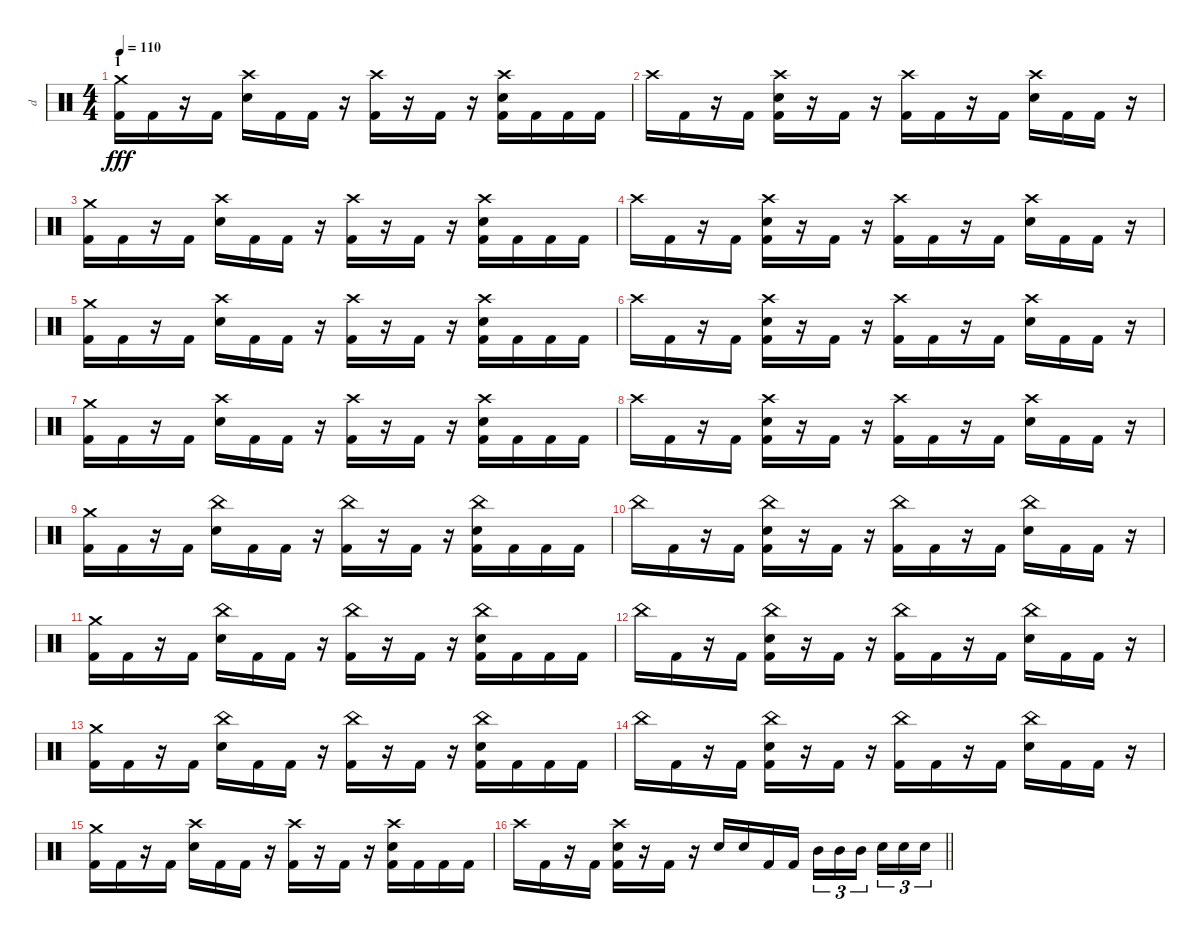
\track ("d" "d") {instrument percussion}
\staff {score}
\articulation defaults
\ts (4 4)
\section ("" "1")
\tempo 110
\clef neutral
\ks c
("Kick (hit) 2" "Crash medium (hit)").16{dy fff} "Kick (hit) 2".16 r.16 "Kick (hit) 2".16 ("Electric Snare (hit)" "Crash high (hit)").16 "Kick (hit) 2".16 "Kick (hit) 2".16 r.16 ("Kick (hit) 2" "Crash high (hit)").16 r.16 "Kick (hit) 2".16 r.16 ("Kick (hit) 2" "Electric Snare (hit)" "Crash high (hit)").16 "Kick (hit) 2".16 "Kick (hit) 2".16 "Kick (hit) 2".16 |
"Crash high (hit)".16 "Kick (hit) 2".16 r.16 "Kick (hit) 2".16 ("Kick (hit) 2" "Electric Snare (hit)" "Crash high (hit)").16 r.16 "Kick (hit) 2".16 r.16 ("Kick (hit) 2" "Crash high (hit)").16 "Kick (hit) 2".16 r.16 "Kick (hit) 2".16 ("Electric Snare (hit)" "Crash high (hit)").16 "Kick (hit) 2".16 "Kick (hit) 2".16 r.16 |
("Kick (hit) 2" "Crash medium (hit)").16 "Kick (hit) 2".16 r.16 "Kick (hit) 2".16 ("Electric Snare (hit)" "Crash high (hit)").16 "Kick (hit) 2".16 "Kick (hit) 2".16 r.16 ("Kick (hit) 2" "Crash high (hit)").16 r.16 "Kick (hit) 2".16 r.16 ("Kick (hit) 2" "Electric Snare (hit)" "Crash high (hit)").16 "Kick (hit) 2".16 "Kick (hit) 2".16 "Kick (hit) 2".16 |
"Crash high (hit)".16 "Kick (hit) 2".16 r.16 "Kick (hit) 2".16 ("Kick (hit) 2" "Electric Snare (hit)" "Crash high (hit)").16 r.16 "Kick (hit) 2".16 r.16 ("Kick (hit) 2" "Crash high (hit)").16 "Kick (hit) 2".16 r.16 "Kick (hit) 2".16 ("Electric Snare (hit)" "Crash high (hit)").16 "Kick (hit) 2".16 "Kick (hit) 2".16 r.16 |
("Kick (hit) 2" "Crash medium (hit)").16 "Kick (hit) 2".16 r.16 "Kick (hit) 2".16 ("Electric Snare (hit)" "Crash high (hit)").16 "Kick (hit) 2".16 "Kick (hit) 2".16 r.16 ("Kick (hit) 2" "Crash high (hit)").16 r.16 "Kick (hit) 2".16 r.16 ("Kick (hit) 2" "Electric Snare (hit)" "Crash high (hit)").16 "Kick (hit) 2".16 "Kick (hit) 2".16 "Kick (hit) 2".16 |
"Crash high (hit)".16 "Kick (hit) 2".16 r.16 "Kick (hit) 2".16 ("Kick (hit) 2" "Electric Snare (hit)" "Crash high (hit)").16 r.16 "Kick (hit) 2".16 r.16 ("Kick (hit) 2" "Crash high (hit)").16 "Kick (hit) 2".16 r.16 "Kick (hit) 2".16 ("Electric Snare (hit)" "Crash high (hit)").16 "Kick (hit) 2".16 "Kick (hit) 2".16 r.16 |
("Kick (hit) 2" "Crash medium (hit)").16 "Kick (hit) 2".16 r.16 "Kick (hit) 2".16 ("Electric Snare (hit)" "Crash high (hit)").16 "Kick (hit) 2".16 "Kick (hit) 2".16 r.16 ("Kick (hit) 2" "Crash high (hit)").16 r.16 "Kick (hit) 2".16 r.16 ("Kick (hit) 2" "Electric Snare (hit)" "Crash high (hit)").16 "Kick (hit) 2".16 "Kick (hit) 2".16 "Kick (hit) 2".16 |
"Crash high (hit)".16 "Kick (hit) 2".16 r.16 "Kick (hit) 2".16 ("Kick (hit) 2" "Electric Snare (hit)" "Crash high (hit)").16 r.16 "Kick (hit) 2".16 r.16 ("Kick (hit) 2" "Crash high (hit)").16 "Kick (hit) 2".16 r.16 "Kick (hit) 2".16 ("Electric Snare (hit)" "Crash high (hit)").16 "Kick (hit) 2".16 "Kick (hit) 2".16 r.16 |
("Kick (hit) 2" "Crash medium (hit)").16 "Kick (hit) 2".16 r.16 "Kick (hit) 2".16 ("Electric Snare (hit)" "China (hit)").16 "Kick (hit) 2".16 "Kick (hit) 2".16 r.16 ("Kick (hit) 2" "China (hit)").16 r.16 "Kick (hit) 2".16 r.16 ("Kick (hit) 2" "Electric Snare (hit)" "China (hit)").16 "Kick (hit) 2".16 "Kick (hit) 2".16 "Kick (hit) 2".16 |
"China (hit)".16 "Kick (hit) 2".16 r.16 "Kick (hit) 2".16 ("Kick (hit) 2" "Electric Snare (hit)" "China (hit)").16 r.16 "Kick (hit) 2".16 r.16 ("Kick (hit) 2" "China (hit)").16 "Kick (hit) 2".16 r.16 "Kick (hit) 2".16 ("Electric Snare (hit)" "China (hit)").16 "Kick (hit) 2".16 "Kick (hit) 2".16 r.16 |
("Kick (hit) 2" "Crash medium (hit)").16 "Kick (hit) 2".16 r.16 "Kick (hit) 2".16 ("Electric Snare (hit)" "China (hit)").16 "Kick (hit) 2".16 "Kick (hit) 2".16 r.16 ("Kick (hit) 2" "China (hit)").16 r.16 "Kick (hit) 2".16 r.16 ("Kick (hit) 2" "Electric Snare (hit)" "China (hit)").16 "Kick (hit) 2".16 "Kick (hit) 2".16 "Kick (hit) 2".16 |
"China (hit)".16 "Kick (hit) 2".16 r.16 "Kick (hit) 2".16 ("Kick (hit) 2" "Electric Snare (hit)" "China (hit)").16 r.16 "Kick (hit) 2".16 r.16 ("Kick (hit) 2" "China (hit)").16 "Kick (hit) 2".16 r.16 "Kick (hit) 2".16 ("Electric Snare (hit)" "China (hit)").16 "Kick (hit) 2".16 "Kick (hit) 2".16 r.16 |
("Kick (hit) 2" "Crash medium (hit)").16 "Kick (hit) 2".16 r.16 "Kick (hit) 2".16 ("Electric Snare (hit)" "China (hit)").16 "Kick (hit) 2".16 "Kick (hit) 2".16 r.16 ("Kick (hit) 2" "China (hit)").16 r.16 "Kick (hit) 2".16 r.16 ("Kick (hit) 2" "Electric Snare (hit)" "China (hit)").16 "Kick (hit) 2".16 "Kick (hit) 2".16 "Kick (hit) 2".16 |
"China (hit)".16 "Kick (hit) 2".16 r.16 "Kick (hit) 2".16 ("Kick (hit) 2" "Electric Snare (hit)" "China (hit)").16 r.16 "Kick (hit) 2".16 r.16 ("Kick (hit) 2" "China (hit)").16 "Kick (hit) 2".16 r.16 "Kick (hit) 2".16 ("Electric Snare (hit)" "China (hit)").16 "Kick (hit) 2".16 "Kick (hit) 2".16 r.16 |
("Kick (hit) 2" "Crash medium (hit)").16 "Kick (hit) 2".16 r.16 "Kick (hit) 2".16 ("Electric Snare (hit)" "Crash high (hit)").16 "Kick (hit) 2".16 "Kick (hit) 2".16 r.16 ("Kick (hit) 2" "Crash high (hit)").16 r.16 "Kick (hit) 2".16 r.16 ("Kick (hit) 2" "Electric Snare (hit)" "Crash high (hit)").16 "Kick (hit) 2".16 "Kick (hit) 2".16 "Kick (hit) 2".16 |
\barLineRight lightlight "Crash high (hit)".16 "Kick (hit) 2".16
r.16 "Kick (hit) 2".16 ("Kick (hit) 2" "Electric Snare (hit)" "Crash high (hit)").16 r.16 "Kick (hit) 2".16 r.16 "Electric Snare (hit)".16 "Electric Snare (hit)".16 "Kick (hit) 2".16 "Kick (hit) 2".16 "Mid Tom (hit)".16{tu (3 2)} "Mid Tom (hit)".16{tu (3 2)} "Mid Tom (hit)".16{tu (3 2) beam splitsecondary} "Electric Snare (hit)".16{tu (3 2)} "Electric Snare (hit)".16{tu (3 2)} "Electric Snare (hit)".16{tu (3 2)}
